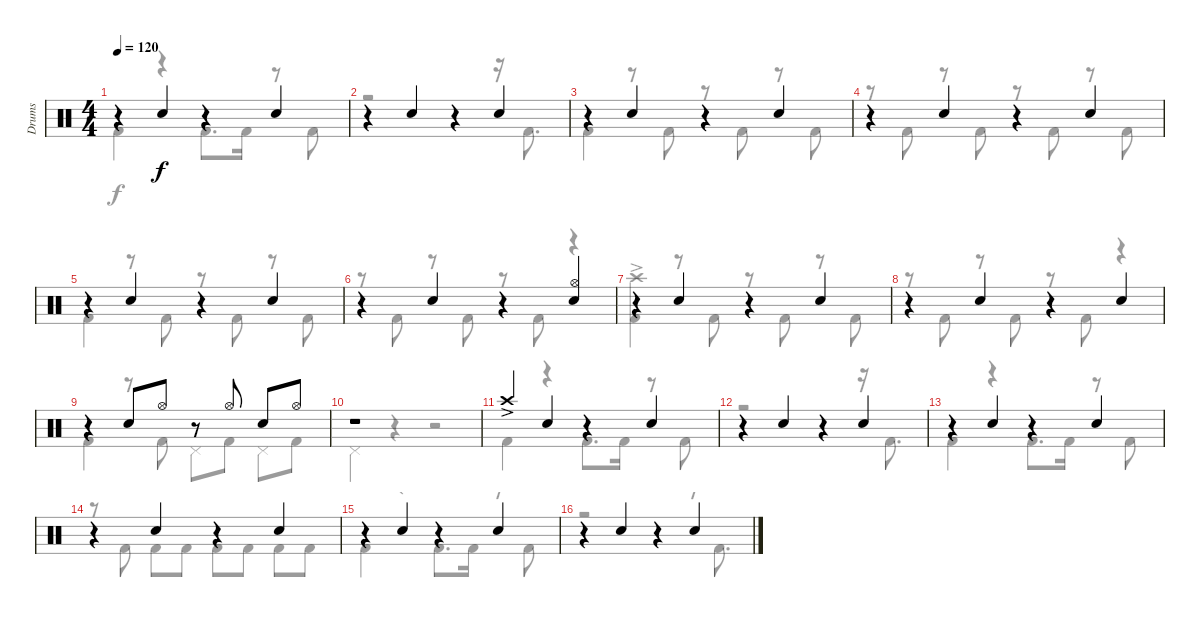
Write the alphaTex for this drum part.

\track ("Drums" "Drums") {instrument percussion}
\staff {score}
\articulation defaults
\voice
\ts (4 4)
\tempo 120
\clef neutral
\ks c
r.4{dy f} "Electric Snare (hit)".4 r.4 "Electric Snare (hit)".4 |
r.4 "Electric Snare (hit)".4 r.4 "Electric Snare (hit)".4 |
r.4 "Electric Snare (hit)".4 r.4 "Electric Snare (hit)".4 |
r.4 "Electric Snare (hit)".4 r.4 "Electric Snare (hit)".4 |
r.4 "Electric Snare (hit)".4 r.4 "Electric Snare (hit)".4 |
r.4 "Electric Snare (hit)".4 r.4 ("Electric Snare (hit)" "Hi-Hat (open)").4 |
r.4 "Electric Snare (hit)".4 r.4 "Electric Snare (hit)".4 |
r.4 "Electric Snare (hit)".4 r.4 "Electric Snare (hit)".4 |
r.4 "Electric Snare (hit)".8 "Hi-Hat (open)".8 r.8 "Hi-Hat (open)".8 "Electric Snare (hit)".8 "Hi-Hat (open)".8 |
r.1 |
"Crash high (hit)"{ac}.4 "Electric Snare (hit)".4 r.4 "Electric Snare (hit)".4 |
r.4 "Electric Snare (hit)".4 r.4 "Electric Snare (hit)".4 |
r.4 "Electric Snare (hit)".4 r.4 "Electric Snare (hit)".4 |
r.4 "Electric Snare (hit)".4 r.4 "Electric Snare (hit)".4 |
r.4 "Electric Snare (hit)".4 r.4 "Electric Snare (hit)".4 |
r.4 "Electric Snare (hit)".4 r.4 "Electric Snare (hit)".4
\voice
\clef neutral
\ottava regular
\simile none
\ks c "Kick (hit) 2".4{dy f}
r.4 "Kick (hit) 2".8{d} "Kick (hit) 2".16 r.8 "Kick (hit) 2".8 |
r.2 r.4 r.16 "Kick (hit) 2".8{d} |
"Kick (hit) 2".4 r.8 "Kick (hit) 2".8 r.8 "Kick (hit) 2".8 r.8 "Kick (hit) 2".8 |
r.8 "Kick (hit) 2".8 r.8 "Kick (hit) 2".8 r.8 "Kick (hit) 2".8 r.8 "Kick (hit) 2".8 |
"Kick (hit) 2".4 r.8 "Kick (hit) 2".8 r.8 "Kick (hit) 2".8 r.8 "Kick (hit) 2".8 |
r.8 "Kick (hit) 2".8 r.8 "Kick (hit) 2".8 r.8 "Kick (hit) 2".8 r.4 |
("Crash high (hit)"{ac} "Kick (hit) 2").4 r.8 "Kick (hit) 2".8 r.8 "Kick (hit) 2".8 r.8 "Kick (hit) 2".8 |
r.8 "Kick (hit) 2".8 r.8 "Kick (hit) 2".8 r.8 "Kick (hit) 2".8 r.4 |
"Kick (hit) 2".4 r.8 "Kick (hit) 2".8 "Pedal Hi-Hat (hit)".8 "Kick (hit) 2".8 "Pedal Hi-Hat (hit)".8 "Kick (hit) 2".8 |
"Pedal Hi-Hat (hit)".4 r.4 r.2 |
"Kick (hit) 2".4 r.4 "Kick (hit) 2".8{d} "Kick (hit) 2".16 r.8 "Kick (hit) 2".8 |
r.2 r.4 r.16 "Kick (hit) 2".8{d} |
"Kick (hit) 2".4 r.4 "Kick (hit) 2".8{d} "Kick (hit) 2".16 r.8 "Kick (hit) 2".8 |
r.8 "Kick (hit) 2".8 "Kick (hit) 2".8 "Kick (hit) 2".8 "Kick (hit) 2".8 "Kick (hit) 2".8 "Kick (hit) 2".8 "Kick (hit) 2".8 |
"Kick (hit) 2".4 r.4 "Kick (hit) 2".8{d} "Kick (hit) 2".16 r.8 "Kick (hit) 2".8 |
r.2 r.4 r.16 "Kick (hit) 2".8{d}
